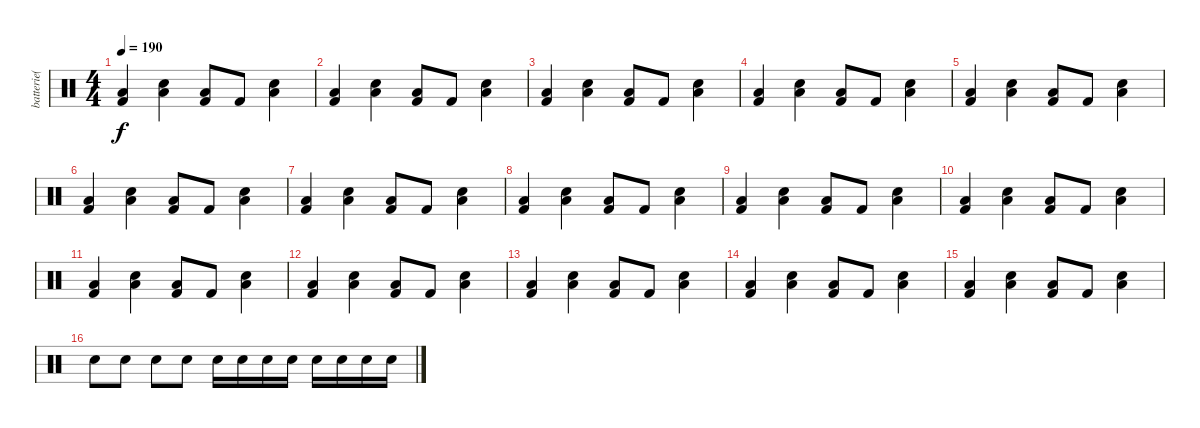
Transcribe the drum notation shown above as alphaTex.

\track ("batterie( Byron McMackin )" "batterie( ") {instrument percussion}
\staff {score}
\articulation defaults
\ts (4 4)
\tempo 190
\clef neutral
\ks c
("Low Tom (hit)" "Kick (hit) 2").4{dy f} ("Low Tom (hit)" "Snare (hit) 2").4 ("Low Tom (hit)" "Kick (hit) 2").8 "Kick (hit) 2".8 ("Low Tom (hit)" "Snare (hit) 2").4 |
("Low Tom (hit)" "Kick (hit) 2").4 ("Low Tom (hit)" "Snare (hit) 2").4 ("Low Tom (hit)" "Kick (hit) 2").8 "Kick (hit) 2".8 ("Low Tom (hit)" "Snare (hit) 2").4 |
("Low Tom (hit)" "Kick (hit) 2").4 ("Low Tom (hit)" "Snare (hit) 2").4 ("Low Tom (hit)" "Kick (hit) 2").8 "Kick (hit) 2".8 ("Low Tom (hit)" "Snare (hit) 2").4 |
("Low Tom (hit)" "Kick (hit) 2").4 ("Low Tom (hit)" "Snare (hit) 2").4 ("Low Tom (hit)" "Kick (hit) 2").8 "Kick (hit) 2".8 ("Low Tom (hit)" "Snare (hit) 2").4 |
("Low Tom (hit)" "Kick (hit) 2").4 ("Low Tom (hit)" "Snare (hit) 2").4 ("Low Tom (hit)" "Kick (hit) 2").8 "Kick (hit) 2".8 ("Low Tom (hit)" "Snare (hit) 2").4 |
("Low Tom (hit)" "Kick (hit) 2").4 ("Low Tom (hit)" "Snare (hit) 2").4 ("Low Tom (hit)" "Kick (hit) 2").8 "Kick (hit) 2".8 ("Low Tom (hit)" "Snare (hit) 2").4 |
("Low Tom (hit)" "Kick (hit) 2").4 ("Low Tom (hit)" "Snare (hit) 2").4 ("Low Tom (hit)" "Kick (hit) 2").8 "Kick (hit) 2".8 ("Low Tom (hit)" "Snare (hit) 2").4 |
("Low Tom (hit)" "Kick (hit) 2").4 ("Low Tom (hit)" "Snare (hit) 2").4 ("Low Tom (hit)" "Kick (hit) 2").8 "Kick (hit) 2".8 ("Low Tom (hit)" "Snare (hit) 2").4 |
("Low Tom (hit)" "Kick (hit) 2").4 ("Low Tom (hit)" "Snare (hit) 2").4 ("Low Tom (hit)" "Kick (hit) 2").8 "Kick (hit) 2".8 ("Low Tom (hit)" "Snare (hit) 2").4 |
("Low Tom (hit)" "Kick (hit) 2").4 ("Low Tom (hit)" "Snare (hit) 2").4 ("Low Tom (hit)" "Kick (hit) 2").8 "Kick (hit) 2".8 ("Low Tom (hit)" "Snare (hit) 2").4 |
("Low Tom (hit)" "Kick (hit) 2").4 ("Low Tom (hit)" "Snare (hit) 2").4 ("Low Tom (hit)" "Kick (hit) 2").8 "Kick (hit) 2".8 ("Low Tom (hit)" "Snare (hit) 2").4 |
("Low Tom (hit)" "Kick (hit) 2").4 ("Low Tom (hit)" "Snare (hit) 2").4 ("Low Tom (hit)" "Kick (hit) 2").8 "Kick (hit) 2".8 ("Low Tom (hit)" "Snare (hit) 2").4 |
("Low Tom (hit)" "Kick (hit) 2").4 ("Low Tom (hit)" "Snare (hit) 2").4 ("Low Tom (hit)" "Kick (hit) 2").8 "Kick (hit) 2".8 ("Low Tom (hit)" "Snare (hit) 2").4 |
("Low Tom (hit)" "Kick (hit) 2").4 ("Low Tom (hit)" "Snare (hit) 2").4 ("Low Tom (hit)" "Kick (hit) 2").8 "Kick (hit) 2".8 ("Low Tom (hit)" "Snare (hit) 2").4 |
("Low Tom (hit)" "Kick (hit) 2").4 ("Low Tom (hit)" "Snare (hit) 2").4 ("Low Tom (hit)" "Kick (hit) 2").8 "Kick (hit) 2".8 ("Low Tom (hit)" "Snare (hit) 2").4 |
"Snare (hit) 2".8 "Snare (hit) 2".8 "Snare (hit) 2".8 "Snare (hit) 2".8 "Snare (hit) 2".16 "Snare (hit) 2".16 "Snare (hit) 2".16 "Snare (hit) 2".16 "Snare (hit) 2".16 "Snare (hit) 2".16 "Snare (hit) 2".16 "Snare (hit) 2".16
